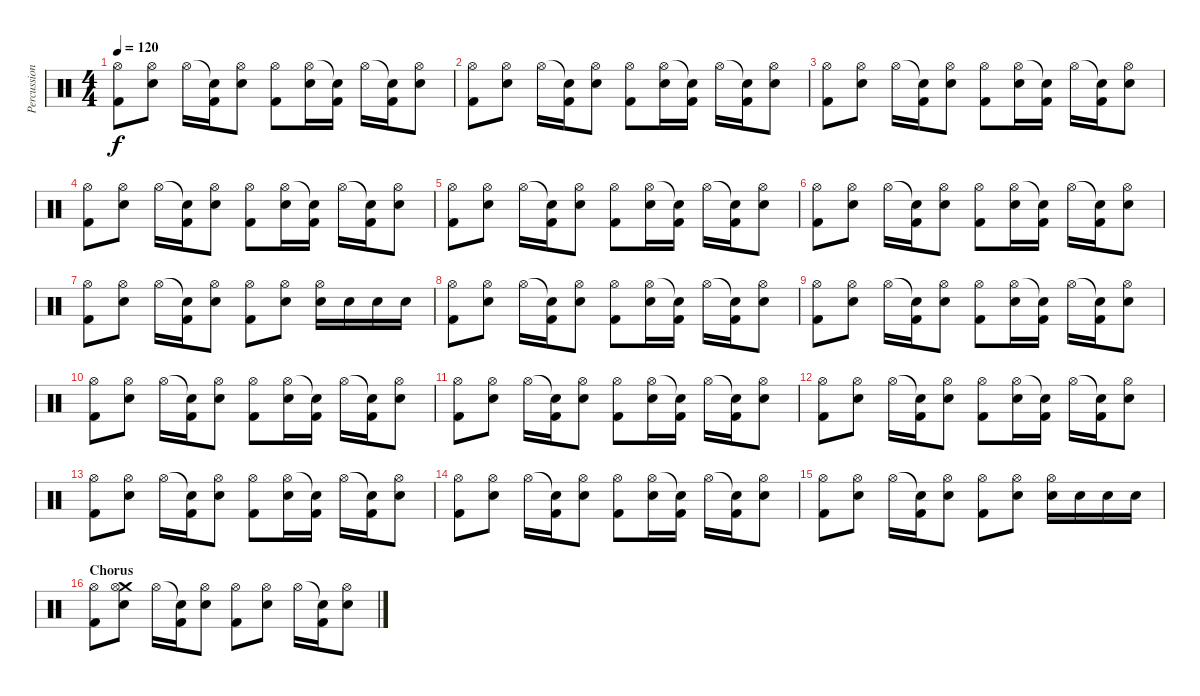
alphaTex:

\track ("Percussion" "Percussion") {instrument percussion}
\staff {score}
\articulation defaults
\ts (4 4)
\tempo 120
\clef neutral
\ks c
("Hi-Hat (open)" "Kick (hit) 2").8{dy f} ("Hi-Hat (open)" "Electric Snare (hit)").8 "Hi-Hat (open)".16 ("Snare (hit)"{t} "Kick (hit) 2").16 ("Hi-Hat (open)" "Electric Snare (hit)").8 ("Hi-Hat (open)" "Kick (hit) 2").8 ("Hi-Hat (open)" "Electric Snare (hit)").16 ("Snare (hit)"{t} "Kick (hit) 2").16 "Hi-Hat (open)".16 ("Snare (hit)"{t} "Kick (hit) 2").16 ("Hi-Hat (open)" "Electric Snare (hit)").8 |
("Hi-Hat (open)" "Kick (hit) 2").8 ("Hi-Hat (open)" "Electric Snare (hit)").8 "Hi-Hat (open)".16 ("Snare (hit)"{t} "Kick (hit) 2").16 ("Hi-Hat (open)" "Electric Snare (hit)").8 ("Hi-Hat (open)" "Kick (hit) 2").8 ("Hi-Hat (open)" "Electric Snare (hit)").16 ("Snare (hit)"{t} "Kick (hit) 2").16 "Hi-Hat (open)".16 ("Snare (hit)"{t} "Kick (hit) 2").16 ("Hi-Hat (open)" "Electric Snare (hit)").8 |
("Hi-Hat (open)" "Kick (hit) 2").8 ("Hi-Hat (open)" "Electric Snare (hit)").8 "Hi-Hat (open)".16 ("Snare (hit)"{t} "Kick (hit) 2").16 ("Hi-Hat (open)" "Electric Snare (hit)").8 ("Hi-Hat (open)" "Kick (hit) 2").8 ("Hi-Hat (open)" "Electric Snare (hit)").16 ("Snare (hit)"{t} "Kick (hit) 2").16 "Hi-Hat (open)".16 ("Snare (hit)"{t} "Kick (hit) 2").16 ("Hi-Hat (open)" "Electric Snare (hit)").8 |
("Hi-Hat (open)" "Kick (hit) 2").8 ("Hi-Hat (open)" "Electric Snare (hit)").8 "Hi-Hat (open)".16 ("Snare (hit)"{t} "Kick (hit) 2").16 ("Hi-Hat (open)" "Electric Snare (hit)").8 ("Hi-Hat (open)" "Kick (hit) 2").8 ("Hi-Hat (open)" "Electric Snare (hit)").16 ("Snare (hit)"{t} "Kick (hit) 2").16 "Hi-Hat (open)".16 ("Snare (hit)"{t} "Kick (hit) 2").16 ("Hi-Hat (open)" "Electric Snare (hit)").8 |
("Hi-Hat (open)" "Kick (hit) 2").8 ("Hi-Hat (open)" "Electric Snare (hit)").8 "Hi-Hat (open)".16 ("Snare (hit)"{t} "Kick (hit) 2").16 ("Hi-Hat (open)" "Electric Snare (hit)").8 ("Hi-Hat (open)" "Kick (hit) 2").8 ("Hi-Hat (open)" "Electric Snare (hit)").16 ("Snare (hit)"{t} "Kick (hit) 2").16 "Hi-Hat (open)".16 ("Snare (hit)"{t} "Kick (hit) 2").16 ("Hi-Hat (open)" "Electric Snare (hit)").8 |
("Hi-Hat (open)" "Kick (hit) 2").8 ("Hi-Hat (open)" "Electric Snare (hit)").8 "Hi-Hat (open)".16 ("Snare (hit)"{t} "Kick (hit) 2").16 ("Hi-Hat (open)" "Electric Snare (hit)").8 ("Hi-Hat (open)" "Kick (hit) 2").8 ("Hi-Hat (open)" "Electric Snare (hit)").16 ("Snare (hit)"{t} "Kick (hit) 2").16 "Hi-Hat (open)".16 ("Snare (hit)"{t} "Kick (hit) 2").16 ("Hi-Hat (open)" "Electric Snare (hit)").8 |
("Hi-Hat (open)" "Kick (hit) 2").8 ("Hi-Hat (open)" "Electric Snare (hit)").8 "Hi-Hat (open)".16 ("Snare (hit)"{t} "Kick (hit) 2").16 ("Hi-Hat (open)" "Electric Snare (hit)").8 ("Hi-Hat (open)" "Kick (hit) 2").8 ("Hi-Hat (open)" "Electric Snare (hit)").8 ("Hi-Hat (open)" "Electric Snare (hit)").16 "Electric Snare (hit)".16 "Electric Snare (hit)".16 "Electric Snare (hit)".16 |
("Hi-Hat (open)" "Kick (hit) 2").8 ("Hi-Hat (open)" "Electric Snare (hit)").8 "Hi-Hat (open)".16 ("Snare (hit)"{t} "Kick (hit) 2").16 ("Hi-Hat (open)" "Electric Snare (hit)").8 ("Hi-Hat (open)" "Kick (hit) 2").8 ("Hi-Hat (open)" "Electric Snare (hit)").16 ("Snare (hit)"{t} "Kick (hit) 2").16 "Hi-Hat (open)".16 ("Snare (hit)"{t} "Kick (hit) 2").16 ("Hi-Hat (open)" "Electric Snare (hit)").8 |
("Hi-Hat (open)" "Kick (hit) 2").8 ("Hi-Hat (open)" "Electric Snare (hit)").8 "Hi-Hat (open)".16 ("Snare (hit)"{t} "Kick (hit) 2").16 ("Hi-Hat (open)" "Electric Snare (hit)").8 ("Hi-Hat (open)" "Kick (hit) 2").8 ("Hi-Hat (open)" "Electric Snare (hit)").16 ("Snare (hit)"{t} "Kick (hit) 2").16 "Hi-Hat (open)".16 ("Snare (hit)"{t} "Kick (hit) 2").16 ("Hi-Hat (open)" "Electric Snare (hit)").8 |
("Hi-Hat (open)" "Kick (hit) 2").8 ("Hi-Hat (open)" "Electric Snare (hit)").8 "Hi-Hat (open)".16 ("Snare (hit)"{t} "Kick (hit) 2").16 ("Hi-Hat (open)" "Electric Snare (hit)").8 ("Hi-Hat (open)" "Kick (hit) 2").8 ("Hi-Hat (open)" "Electric Snare (hit)").16 ("Snare (hit)"{t} "Kick (hit) 2").16 "Hi-Hat (open)".16 ("Snare (hit)"{t} "Kick (hit) 2").16 ("Hi-Hat (open)" "Electric Snare (hit)").8 |
("Hi-Hat (open)" "Kick (hit) 2").8 ("Hi-Hat (open)" "Electric Snare (hit)").8 "Hi-Hat (open)".16 ("Snare (hit)"{t} "Kick (hit) 2").16 ("Hi-Hat (open)" "Electric Snare (hit)").8 ("Hi-Hat (open)" "Kick (hit) 2").8 ("Hi-Hat (open)" "Electric Snare (hit)").16 ("Snare (hit)"{t} "Kick (hit) 2").16 "Hi-Hat (open)".16 ("Snare (hit)"{t} "Kick (hit) 2").16 ("Hi-Hat (open)" "Electric Snare (hit)").8 |
("Hi-Hat (open)" "Kick (hit) 2").8 ("Hi-Hat (open)" "Electric Snare (hit)").8 "Hi-Hat (open)".16 ("Snare (hit)"{t} "Kick (hit) 2").16 ("Hi-Hat (open)" "Electric Snare (hit)").8 ("Hi-Hat (open)" "Kick (hit) 2").8 ("Hi-Hat (open)" "Electric Snare (hit)").16 ("Snare (hit)"{t} "Kick (hit) 2").16 "Hi-Hat (open)".16 ("Snare (hit)"{t} "Kick (hit) 2").16 ("Hi-Hat (open)" "Electric Snare (hit)").8 |
("Hi-Hat (open)" "Kick (hit) 2").8 ("Hi-Hat (open)" "Electric Snare (hit)").8 "Hi-Hat (open)".16 ("Snare (hit)"{t} "Kick (hit) 2").16 ("Hi-Hat (open)" "Electric Snare (hit)").8 ("Hi-Hat (open)" "Kick (hit) 2").8 ("Hi-Hat (open)" "Electric Snare (hit)").16 ("Snare (hit)"{t} "Kick (hit) 2").16 "Hi-Hat (open)".16 ("Snare (hit)"{t} "Kick (hit) 2").16 ("Hi-Hat (open)" "Electric Snare (hit)").8 |
("Hi-Hat (open)" "Kick (hit) 2").8 ("Hi-Hat (open)" "Electric Snare (hit)").8 "Hi-Hat (open)".16 ("Snare (hit)"{t} "Kick (hit) 2").16 ("Hi-Hat (open)" "Electric Snare (hit)").8 ("Hi-Hat (open)" "Kick (hit) 2").8 ("Hi-Hat (open)" "Electric Snare (hit)").16 ("Snare (hit)"{t} "Kick (hit) 2").16 "Hi-Hat (open)".16 ("Snare (hit)"{t} "Kick (hit) 2").16 ("Hi-Hat (open)" "Electric Snare (hit)").8 |
("Hi-Hat (open)" "Kick (hit) 2").8 ("Hi-Hat (open)" "Electric Snare (hit)").8 "Hi-Hat (open)".16 ("Snare (hit)"{t} "Kick (hit) 2").16 ("Hi-Hat (open)" "Electric Snare (hit)").8 ("Hi-Hat (open)" "Kick (hit) 2").8 ("Hi-Hat (open)" "Electric Snare (hit)").8 ("Hi-Hat (open)" "Electric Snare (hit)").16 "Electric Snare (hit)".16 "Electric Snare (hit)".16 "Electric Snare (hit)".16 |
\section ("" "Chorus")
("Hi-Hat (open)" "Kick (hit) 2").8 ("Crash medium (hit)" "Hi-Hat (open)" "Electric Snare (hit)").8 "Hi-Hat (open)".16 ("Snare (hit)"{t} "Kick (hit) 2").16 ("Hi-Hat (open)" "Electric Snare (hit)").8 ("Hi-Hat (open)" "Kick (hit) 2").8 ("Hi-Hat (open)" "Electric Snare (hit)").8 "Hi-Hat (open)".16 ("Snare (hit)"{t} "Kick (hit) 2").16 ("Hi-Hat (open)" "Electric Snare (hit)").8
